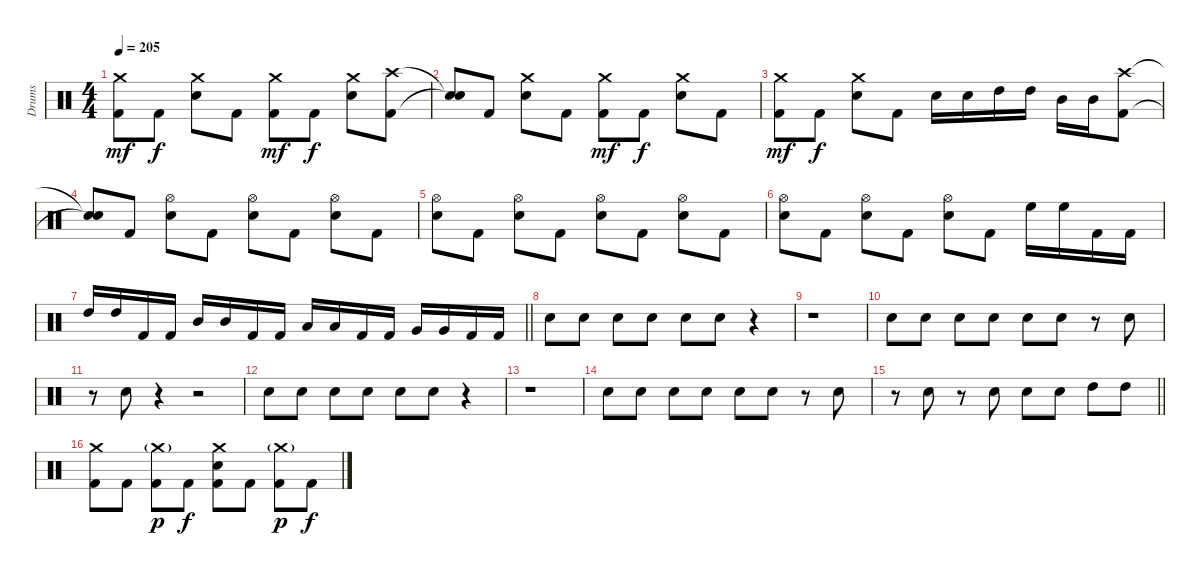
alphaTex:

\track ("Drums" "Drums") {instrument percussion}
\staff {score}
\articulation defaults
\ts (4 4)
\tempo 205
\clef neutral
\ks c
("Crash medium (hit)" "Kick (hit) 2").8{dy mf} "Kick (hit) 2".8{dy f} ("Crash medium (hit)" "Electric Snare (hit)").8 "Kick (hit) 2".8 ("Crash medium (hit)" "Kick (hit) 2").8{dy mf} "Kick (hit) 2".8{dy f} ("Crash medium (hit)" "Electric Snare (hit)").8 ("Crash high (hit)" "Kick (hit) 2").8 |
("Snare (hit)"{t} "Snare (hit)"{t}).8 "Kick (hit) 2".8 ("Crash medium (hit)" "Electric Snare (hit)").8 "Kick (hit) 2".8 ("Crash medium (hit)" "Kick (hit) 2").8{dy mf} "Kick (hit) 2".8{dy f} ("Crash medium (hit)" "Electric Snare (hit)").8 "Kick (hit) 2".8 |
("Crash medium (hit)" "Kick (hit) 2").8{dy mf} "Kick (hit) 2".8{dy f} ("Crash medium (hit)" "Electric Snare (hit)").8 "Kick (hit) 2".8 "Electric Snare (hit)".16 "Electric Snare (hit)".16 "High Tom (hit)".16 "High Tom (hit)".16 "Mid Tom (hit)".16 "Mid Tom (hit)".16 ("Crash high (hit)" "Kick (hit) 2").8 |
("Snare (hit)"{t} "Snare (hit)"{t}).8 "Kick (hit) 2".8 ("Hi-Hat (open)" "Electric Snare (hit)").8 "Kick (hit) 2".8 ("Hi-Hat (open)" "Electric Snare (hit)").8 "Kick (hit) 2".8 ("Hi-Hat (open)" "Electric Snare (hit)").8 "Kick (hit) 2".8 |
("Hi-Hat (open)" "Electric Snare (hit)").8 "Kick (hit) 2".8 ("Hi-Hat (open)" "Electric Snare (hit)").8 "Kick (hit) 2".8 ("Hi-Hat (open)" "Electric Snare (hit)").8 "Kick (hit) 2".8 ("Hi-Hat (open)" "Electric Snare (hit)").8 "Kick (hit) 2".8 |
("Hi-Hat (open)" "Electric Snare (hit)").8 "Kick (hit) 2".8 ("Hi-Hat (open)" "Electric Snare (hit)").8 "Kick (hit) 2".8 ("Hi-Hat (open)" "Electric Snare (hit)").8 "Kick (hit) 2".8 "High Floor Tom (hit)".16 "High Floor Tom (hit)".16 "Kick (hit) 2".16 "Kick (hit) 2".16 |
\barLineRight lightlight "High Tom (hit)".16 "High Tom (hit)".16 "Kick (hit) 2".16 "Kick (hit) 2".16 "Mid Tom (hit)".16 "Mid Tom (hit)".16 "Kick (hit) 2".16 "Kick (hit) 2".16 "Low Tom (hit)".16 "Low Tom (hit)".16 "Kick (hit) 2".16 "Kick (hit) 2".16 "Very Low Tom (hit)".16 "Very Low Tom (hit)".16 "Kick (hit) 2".16 "Kick (hit) 2".16
|
"Electric Snare (hit)".8 "Electric Snare (hit)".8 "Electric Snare (hit)".8 "Electric Snare (hit)".8 "Electric Snare (hit)".8 "Electric Snare (hit)".8 r.4 |
r.1 |
"Electric Snare (hit)".8 "Electric Snare (hit)".8 "Electric Snare (hit)".8 "Electric Snare (hit)".8 "Electric Snare (hit)".8 "Electric Snare (hit)".8 r.8 "Electric Snare (hit)".8 |
r.8 "Electric Snare (hit)".8 r.4 r.2 |
"Electric Snare (hit)".8 "Electric Snare (hit)".8 "Electric Snare (hit)".8 "Electric Snare (hit)".8 "Electric Snare (hit)".8 "Electric Snare (hit)".8 r.4 |
r.1 |
"Electric Snare (hit)".8 "Electric Snare (hit)".8 "Electric Snare (hit)".8 "Electric Snare (hit)".8 "Electric Snare (hit)".8 "Electric Snare (hit)".8 r.8 "Electric Snare (hit)".8 |
\barLineRight lightlight
r.8 "Electric Snare (hit)".8 r.8 "Electric Snare (hit)".8 "Electric Snare (hit)".8 "Electric Snare (hit)".8 "High Tom (hit)".8 "High Tom (hit)".8 |
("Crash medium (hit)" "Kick (hit) 2").8 "Kick (hit) 2".8 ("Crash medium (hit)"{g} "Kick (hit) 2").8{dy p} "Kick (hit) 2".8{dy f} ("Crash medium (hit)" "Electric Snare (hit)" "Kick (hit) 2").8 "Kick (hit) 2".8 ("Crash medium (hit)"{g} "Kick (hit) 2").8{dy p} "Kick (hit) 2".8{dy f}
